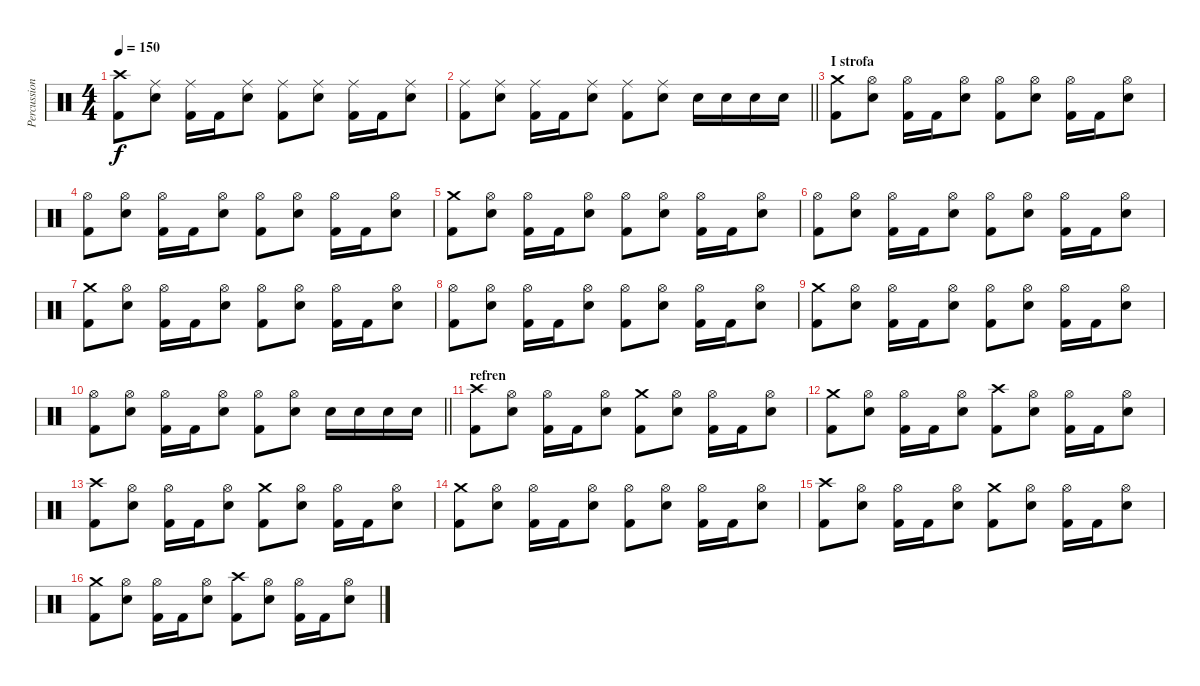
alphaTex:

\track ("Percussion" "Percussion") {instrument percussion}
\staff {score}
\articulation defaults
\ts (4 4)
\tempo 150
\clef neutral
\ks c
("Kick (hit) 2" "Crash high (hit)").8{dy f} ("Snare (hit) 2" "Ride (middle)").8 ("Kick (hit) 2" "Ride (middle)").16 "Kick (hit) 2".16 ("Snare (hit) 2" "Ride (middle)").8 ("Kick (hit) 2" "Ride (middle)").8 ("Snare (hit) 2" "Ride (middle)").8 ("Kick (hit) 2" "Ride (middle)").16 "Kick (hit) 2".16 ("Snare (hit) 2" "Ride (middle)").8 |
\barLineRight lightlight
("Kick (hit) 2" "Ride (middle)").8 ("Snare (hit) 2" "Ride (middle)").8 ("Kick (hit) 2" "Ride (middle)").16 "Kick (hit) 2".16 ("Snare (hit) 2" "Ride (middle)").8 ("Kick (hit) 2" "Ride (middle)").8 ("Snare (hit) 2" "Ride (middle)").8 "Snare (hit) 2".16 "Snare (hit) 2".16 "Snare (hit) 2".16 "Snare (hit) 2".16 |
\section ("" "I strofa")
("Kick (hit) 2" "Crash medium (hit)").8 ("Snare (hit) 2" "Hi-Hat (open)").8 ("Kick (hit) 2" "Hi-Hat (open)").16 "Kick (hit) 2".16 ("Snare (hit) 2" "Hi-Hat (open)").8 ("Kick (hit) 2" "Hi-Hat (open)").8 ("Snare (hit) 2" "Hi-Hat (open)").8 ("Kick (hit) 2" "Hi-Hat (open)").16 "Kick (hit) 2".16 ("Snare (hit) 2" "Hi-Hat (open)").8 |
("Kick (hit) 2" "Hi-Hat (open)").8 ("Snare (hit) 2" "Hi-Hat (open)").8 ("Kick (hit) 2" "Hi-Hat (open)").16 "Kick (hit) 2".16 ("Snare (hit) 2" "Hi-Hat (open)").8 ("Kick (hit) 2" "Hi-Hat (open)").8 ("Snare (hit) 2" "Hi-Hat (open)").8 ("Kick (hit) 2" "Hi-Hat (open)").16 "Kick (hit) 2".16 ("Snare (hit) 2" "Hi-Hat (open)").8 |
("Kick (hit) 2" "Crash medium (hit)").8 ("Snare (hit) 2" "Hi-Hat (open)").8 ("Kick (hit) 2" "Hi-Hat (open)").16 "Kick (hit) 2".16 ("Snare (hit) 2" "Hi-Hat (open)").8 ("Kick (hit) 2" "Hi-Hat (open)").8 ("Snare (hit) 2" "Hi-Hat (open)").8 ("Kick (hit) 2" "Hi-Hat (open)").16 "Kick (hit) 2".16 ("Snare (hit) 2" "Hi-Hat (open)").8 |
("Kick (hit) 2" "Hi-Hat (open)").8 ("Snare (hit) 2" "Hi-Hat (open)").8 ("Kick (hit) 2" "Hi-Hat (open)").16 "Kick (hit) 2".16 ("Snare (hit) 2" "Hi-Hat (open)").8 ("Kick (hit) 2" "Hi-Hat (open)").8 ("Snare (hit) 2" "Hi-Hat (open)").8 ("Kick (hit) 2" "Hi-Hat (open)").16 "Kick (hit) 2".16 ("Snare (hit) 2" "Hi-Hat (open)").8 |
("Kick (hit) 2" "Crash medium (hit)").8 ("Snare (hit) 2" "Hi-Hat (open)").8 ("Kick (hit) 2" "Hi-Hat (open)").16 "Kick (hit) 2".16 ("Snare (hit) 2" "Hi-Hat (open)").8 ("Kick (hit) 2" "Hi-Hat (open)").8 ("Snare (hit) 2" "Hi-Hat (open)").8 ("Kick (hit) 2" "Hi-Hat (open)").16 "Kick (hit) 2".16 ("Snare (hit) 2" "Hi-Hat (open)").8 |
("Kick (hit) 2" "Hi-Hat (open)").8 ("Snare (hit) 2" "Hi-Hat (open)").8 ("Kick (hit) 2" "Hi-Hat (open)").16 "Kick (hit) 2".16 ("Snare (hit) 2" "Hi-Hat (open)").8 ("Kick (hit) 2" "Hi-Hat (open)").8 ("Snare (hit) 2" "Hi-Hat (open)").8 ("Kick (hit) 2" "Hi-Hat (open)").16 "Kick (hit) 2".16 ("Snare (hit) 2" "Hi-Hat (open)").8 |
("Kick (hit) 2" "Crash medium (hit)").8 ("Snare (hit) 2" "Hi-Hat (open)").8 ("Kick (hit) 2" "Hi-Hat (open)").16 "Kick (hit) 2".16 ("Snare (hit) 2" "Hi-Hat (open)").8 ("Kick (hit) 2" "Hi-Hat (open)").8 ("Snare (hit) 2" "Hi-Hat (open)").8 ("Kick (hit) 2" "Hi-Hat (open)").16 "Kick (hit) 2".16 ("Snare (hit) 2" "Hi-Hat (open)").8 |
\barLineRight lightlight
("Kick (hit) 2" "Hi-Hat (open)").8 ("Snare (hit) 2" "Hi-Hat (open)").8 ("Kick (hit) 2" "Hi-Hat (open)").16 "Kick (hit) 2".16 ("Snare (hit) 2" "Hi-Hat (open)").8 ("Kick (hit) 2" "Hi-Hat (open)").8 ("Snare (hit) 2" "Hi-Hat (open)").8 "Snare (hit) 2".16 "Snare (hit) 2".16 "Snare (hit) 2".16 "Snare (hit) 2".16 |
\section ("" "refren")
("Kick (hit) 2" "Crash high (hit)").8 ("Snare (hit) 2" "Hi-Hat (open)").8 ("Kick (hit) 2" "Hi-Hat (open)").16 "Kick (hit) 2".16 ("Snare (hit) 2" "Hi-Hat (open)").8 ("Kick (hit) 2" "Crash medium (hit)").8 ("Snare (hit) 2" "Hi-Hat (open)").8 ("Kick (hit) 2" "Hi-Hat (open)").16 "Kick (hit) 2".16 ("Snare (hit) 2" "Hi-Hat (open)").8 |
("Kick (hit) 2" "Crash medium (hit)").8 ("Snare (hit) 2" "Hi-Hat (open)").8 ("Kick (hit) 2" "Hi-Hat (open)").16 "Kick (hit) 2".16 ("Snare (hit) 2" "Hi-Hat (open)").8 ("Kick (hit) 2" "Crash high (hit)").8 ("Snare (hit) 2" "Hi-Hat (open)").8 ("Kick (hit) 2" "Hi-Hat (open)").16 "Kick (hit) 2".16 ("Snare (hit) 2" "Hi-Hat (open)").8 |
("Kick (hit) 2" "Crash high (hit)").8 ("Snare (hit) 2" "Hi-Hat (open)").8 ("Kick (hit) 2" "Hi-Hat (open)").16 "Kick (hit) 2".16 ("Snare (hit) 2" "Hi-Hat (open)").8 ("Kick (hit) 2" "Crash medium (hit)").8 ("Snare (hit) 2" "Hi-Hat (open)").8 ("Kick (hit) 2" "Hi-Hat (open)").16 "Kick (hit) 2".16 ("Snare (hit) 2" "Hi-Hat (open)").8 |
("Kick (hit) 2" "Crash medium (hit)").8 ("Snare (hit) 2" "Hi-Hat (open)").8 ("Kick (hit) 2" "Hi-Hat (open)").16 "Kick (hit) 2".16 ("Snare (hit) 2" "Hi-Hat (open)").8 ("Kick (hit) 2" "Hi-Hat (open)").8 ("Snare (hit) 2" "Hi-Hat (open)").8 ("Kick (hit) 2" "Hi-Hat (open)").16 "Kick (hit) 2".16 ("Snare (hit) 2" "Hi-Hat (open)").8 |
("Kick (hit) 2" "Crash high (hit)").8 ("Snare (hit) 2" "Hi-Hat (open)").8 ("Kick (hit) 2" "Hi-Hat (open)").16 "Kick (hit) 2".16 ("Snare (hit) 2" "Hi-Hat (open)").8 ("Kick (hit) 2" "Crash medium (hit)").8 ("Snare (hit) 2" "Hi-Hat (open)").8 ("Kick (hit) 2" "Hi-Hat (open)").16 "Kick (hit) 2".16 ("Snare (hit) 2" "Hi-Hat (open)").8 |
("Kick (hit) 2" "Crash medium (hit)").8 ("Snare (hit) 2" "Hi-Hat (open)").8 ("Kick (hit) 2" "Hi-Hat (open)").16 "Kick (hit) 2".16 ("Snare (hit) 2" "Hi-Hat (open)").8 ("Kick (hit) 2" "Crash high (hit)").8 ("Snare (hit) 2" "Hi-Hat (open)").8 ("Kick (hit) 2" "Hi-Hat (open)").16 "Kick (hit) 2".16 ("Snare (hit) 2" "Hi-Hat (open)").8
